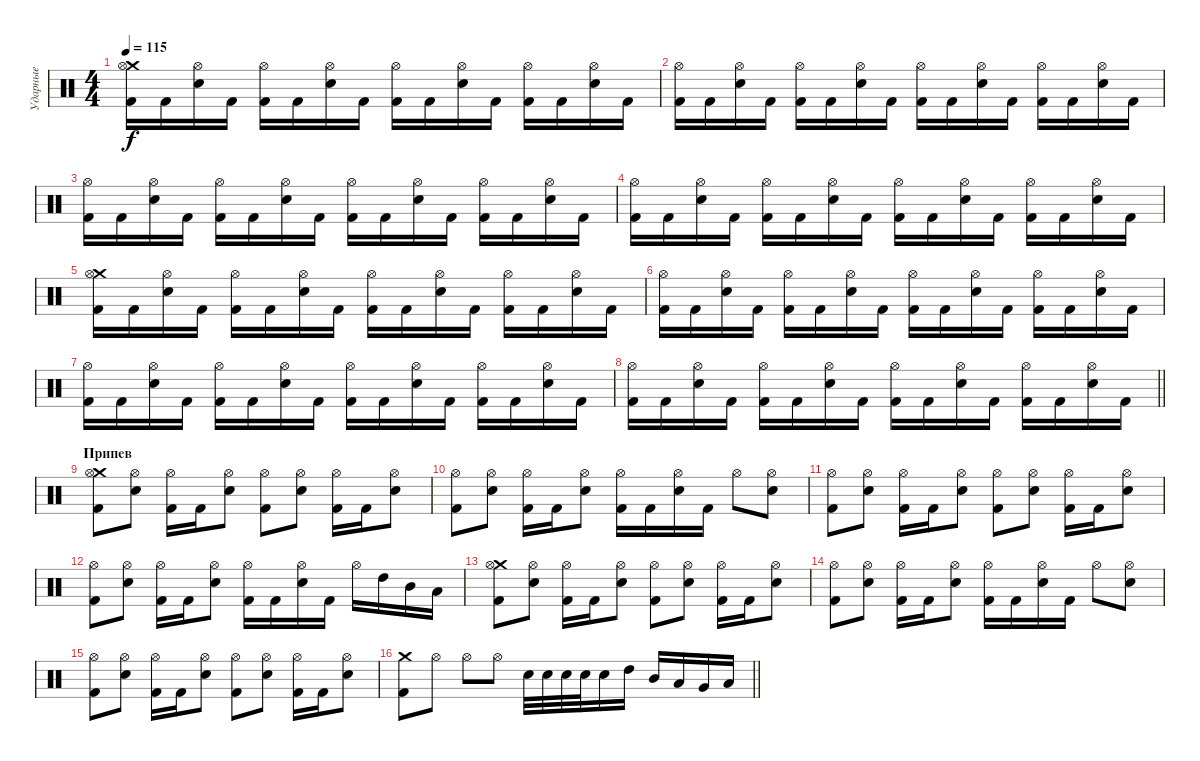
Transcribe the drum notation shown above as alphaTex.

\track ("Ударные" "Ударные") {instrument percussion}
\staff {score}
\articulation defaults
\ts (4 4)
\tempo 115
\clef neutral
\ks aminor
("Crash medium (hit)" "Kick (hit) 2" "Hi-Hat (open)").16{dy f} "Kick (hit) 2".16 ("Electric Snare (hit)" "Hi-Hat (open)").16 "Kick (hit) 2".16 ("Kick (hit) 2" "Hi-Hat (open)").16 "Kick (hit) 2".16 ("Electric Snare (hit)" "Hi-Hat (open)").16 "Kick (hit) 2".16 ("Kick (hit) 2" "Hi-Hat (open)").16 "Kick (hit) 2".16 ("Electric Snare (hit)" "Hi-Hat (open)").16 "Kick (hit) 2".16 ("Kick (hit) 2" "Hi-Hat (open)").16 "Kick (hit) 2".16 ("Electric Snare (hit)" "Hi-Hat (open)").16 "Kick (hit) 2".16 |
("Kick (hit) 2" "Hi-Hat (open)").16 "Kick (hit) 2".16 ("Electric Snare (hit)" "Hi-Hat (open)").16 "Kick (hit) 2".16 ("Kick (hit) 2" "Hi-Hat (open)").16 "Kick (hit) 2".16 ("Electric Snare (hit)" "Hi-Hat (open)").16 "Kick (hit) 2".16 ("Kick (hit) 2" "Hi-Hat (open)").16 "Kick (hit) 2".16 ("Electric Snare (hit)" "Hi-Hat (open)").16 "Kick (hit) 2".16 ("Kick (hit) 2" "Hi-Hat (open)").16 "Kick (hit) 2".16 ("Electric Snare (hit)" "Hi-Hat (open)").16 "Kick (hit) 2".16 |
("Kick (hit) 2" "Hi-Hat (open)").16 "Kick (hit) 2".16 ("Electric Snare (hit)" "Hi-Hat (open)").16 "Kick (hit) 2".16 ("Kick (hit) 2" "Hi-Hat (open)").16 "Kick (hit) 2".16 ("Electric Snare (hit)" "Hi-Hat (open)").16 "Kick (hit) 2".16 ("Kick (hit) 2" "Hi-Hat (open)").16 "Kick (hit) 2".16 ("Electric Snare (hit)" "Hi-Hat (open)").16 "Kick (hit) 2".16 ("Kick (hit) 2" "Hi-Hat (open)").16 "Kick (hit) 2".16 ("Electric Snare (hit)" "Hi-Hat (open)").16 "Kick (hit) 2".16 |
("Kick (hit) 2" "Hi-Hat (open)").16 "Kick (hit) 2".16 ("Electric Snare (hit)" "Hi-Hat (open)").16 "Kick (hit) 2".16 ("Kick (hit) 2" "Hi-Hat (open)").16 "Kick (hit) 2".16 ("Electric Snare (hit)" "Hi-Hat (open)").16 "Kick (hit) 2".16 ("Kick (hit) 2" "Hi-Hat (open)").16 "Kick (hit) 2".16 ("Electric Snare (hit)" "Hi-Hat (open)").16 "Kick (hit) 2".16 ("Kick (hit) 2" "Hi-Hat (open)").16 "Kick (hit) 2".16 ("Electric Snare (hit)" "Hi-Hat (open)").16 "Kick (hit) 2".16 |
("Crash medium (hit)" "Kick (hit) 2" "Hi-Hat (open)").16 "Kick (hit) 2".16 ("Electric Snare (hit)" "Hi-Hat (open)").16 "Kick (hit) 2".16 ("Kick (hit) 2" "Hi-Hat (open)").16 "Kick (hit) 2".16 ("Electric Snare (hit)" "Hi-Hat (open)").16 "Kick (hit) 2".16 ("Kick (hit) 2" "Hi-Hat (open)").16 "Kick (hit) 2".16 ("Electric Snare (hit)" "Hi-Hat (open)").16 "Kick (hit) 2".16 ("Kick (hit) 2" "Hi-Hat (open)").16 "Kick (hit) 2".16 ("Electric Snare (hit)" "Hi-Hat (open)").16 "Kick (hit) 2".16 |
("Kick (hit) 2" "Hi-Hat (open)").16 "Kick (hit) 2".16 ("Electric Snare (hit)" "Hi-Hat (open)").16 "Kick (hit) 2".16 ("Kick (hit) 2" "Hi-Hat (open)").16 "Kick (hit) 2".16 ("Electric Snare (hit)" "Hi-Hat (open)").16 "Kick (hit) 2".16 ("Kick (hit) 2" "Hi-Hat (open)").16 "Kick (hit) 2".16 ("Electric Snare (hit)" "Hi-Hat (open)").16 "Kick (hit) 2".16 ("Kick (hit) 2" "Hi-Hat (open)").16 "Kick (hit) 2".16 ("Electric Snare (hit)" "Hi-Hat (open)").16 "Kick (hit) 2".16 |
("Kick (hit) 2" "Hi-Hat (open)").16 "Kick (hit) 2".16 ("Electric Snare (hit)" "Hi-Hat (open)").16 "Kick (hit) 2".16 ("Kick (hit) 2" "Hi-Hat (open)").16 "Kick (hit) 2".16 ("Electric Snare (hit)" "Hi-Hat (open)").16 "Kick (hit) 2".16 ("Kick (hit) 2" "Hi-Hat (open)").16 "Kick (hit) 2".16 ("Electric Snare (hit)" "Hi-Hat (open)").16 "Kick (hit) 2".16 ("Kick (hit) 2" "Hi-Hat (open)").16 "Kick (hit) 2".16 ("Electric Snare (hit)" "Hi-Hat (open)").16 "Kick (hit) 2".16 |
\barLineRight lightlight
("Kick (hit) 2" "Hi-Hat (open)").16 "Kick (hit) 2".16 ("Electric Snare (hit)" "Hi-Hat (open)").16 "Kick (hit) 2".16 ("Kick (hit) 2" "Hi-Hat (open)").16 "Kick (hit) 2".16 ("Electric Snare (hit)" "Hi-Hat (open)").16 "Kick (hit) 2".16 ("Kick (hit) 2" "Hi-Hat (open)").16 "Kick (hit) 2".16 ("Electric Snare (hit)" "Hi-Hat (open)").16 "Kick (hit) 2".16 ("Kick (hit) 2" "Hi-Hat (open)").16 "Kick (hit) 2".16 ("Electric Snare (hit)" "Hi-Hat (open)").16 "Kick (hit) 2".16 |
\section ("" "Припев")
("Crash medium (hit)" "Kick (hit) 2" "Hi-Hat (open)").8 ("Electric Snare (hit)" "Hi-Hat (open)").8 ("Kick (hit) 2" "Hi-Hat (open)").16 "Kick (hit) 2".16 ("Electric Snare (hit)" "Hi-Hat (open)").8 ("Kick (hit) 2" "Hi-Hat (open)").8 ("Electric Snare (hit)" "Hi-Hat (open)").8 ("Kick (hit) 2" "Hi-Hat (open)").16 "Kick (hit) 2".16 ("Electric Snare (hit)" "Hi-Hat (open)").8 |
("Kick (hit) 2" "Hi-Hat (open)").8 ("Electric Snare (hit)" "Hi-Hat (open)").8 ("Kick (hit) 2" "Hi-Hat (open)").16 "Kick (hit) 2".16 ("Electric Snare (hit)" "Hi-Hat (open)").8 ("Kick (hit) 2" "Hi-Hat (open)").16 "Kick (hit) 2".16 ("Electric Snare (hit)" "Hi-Hat (open)").16 "Kick (hit) 2".16 "Hi-Hat (open)".8 ("Electric Snare (hit)" "Hi-Hat (open)").8 |
("Kick (hit) 2" "Hi-Hat (open)").8 ("Electric Snare (hit)" "Hi-Hat (open)").8 ("Kick (hit) 2" "Hi-Hat (open)").16 "Kick (hit) 2".16 ("Electric Snare (hit)" "Hi-Hat (open)").8 ("Kick (hit) 2" "Hi-Hat (open)").8 ("Electric Snare (hit)" "Hi-Hat (open)").8 ("Kick (hit) 2" "Hi-Hat (open)").16 "Kick (hit) 2".16 ("Electric Snare (hit)" "Hi-Hat (open)").8 |
("Kick (hit) 2" "Hi-Hat (open)").8 ("Electric Snare (hit)" "Hi-Hat (open)").8 ("Kick (hit) 2" "Hi-Hat (open)").16 "Kick (hit) 2".16 ("Electric Snare (hit)" "Hi-Hat (open)").8 ("Kick (hit) 2" "Hi-Hat (open)").16 "Kick (hit) 2".16 ("Electric Snare (hit)" "Hi-Hat (open)").16 "Kick (hit) 2".16 "Hi-Hat (open)".16 "High Tom (hit)".16 "Mid Tom (hit)".16 "Low Tom (hit)".16 |
("Crash medium (hit)" "Kick (hit) 2" "Hi-Hat (open)").8 ("Electric Snare (hit)" "Hi-Hat (open)").8 ("Kick (hit) 2" "Hi-Hat (open)").16 "Kick (hit) 2".16 ("Electric Snare (hit)" "Hi-Hat (open)").8 ("Kick (hit) 2" "Hi-Hat (open)").8 ("Electric Snare (hit)" "Hi-Hat (open)").8 ("Kick (hit) 2" "Hi-Hat (open)").16 "Kick (hit) 2".16 ("Electric Snare (hit)" "Hi-Hat (open)").8 |
("Kick (hit) 2" "Hi-Hat (open)").8 ("Electric Snare (hit)" "Hi-Hat (open)").8 ("Kick (hit) 2" "Hi-Hat (open)").16 "Kick (hit) 2".16 ("Electric Snare (hit)" "Hi-Hat (open)").8 ("Kick (hit) 2" "Hi-Hat (open)").16 "Kick (hit) 2".16 ("Electric Snare (hit)" "Hi-Hat (open)").16 "Kick (hit) 2".16 "Hi-Hat (open)".8 ("Electric Snare (hit)" "Hi-Hat (open)").8 |
("Kick (hit) 2" "Hi-Hat (open)").8 ("Electric Snare (hit)" "Hi-Hat (open)").8 ("Kick (hit) 2" "Hi-Hat (open)").16 "Kick (hit) 2".16 ("Electric Snare (hit)" "Hi-Hat (open)").8 ("Kick (hit) 2" "Hi-Hat (open)").8 ("Electric Snare (hit)" "Hi-Hat (open)").8 ("Kick (hit) 2" "Hi-Hat (open)").16 "Kick (hit) 2".16 ("Electric Snare (hit)" "Hi-Hat (open)").8 |
\barLineRight lightlight
("Crash medium (hit)" "Kick (hit) 2").8 "Hi-Hat (open)".8 "Hi-Hat (open)".8 "Hi-Hat (open)".8 "Electric Snare (hit)".32 "Electric Snare (hit)".32 "Electric Snare (hit)".32 "Electric Snare (hit)".32 "Electric Snare (hit)".16 "High Tom (hit)".16 "Mid Tom (hit)".16 "Low Tom (hit)".16 "Very Low Tom (hit)".16 "Low Floor Tom (hit)".16
